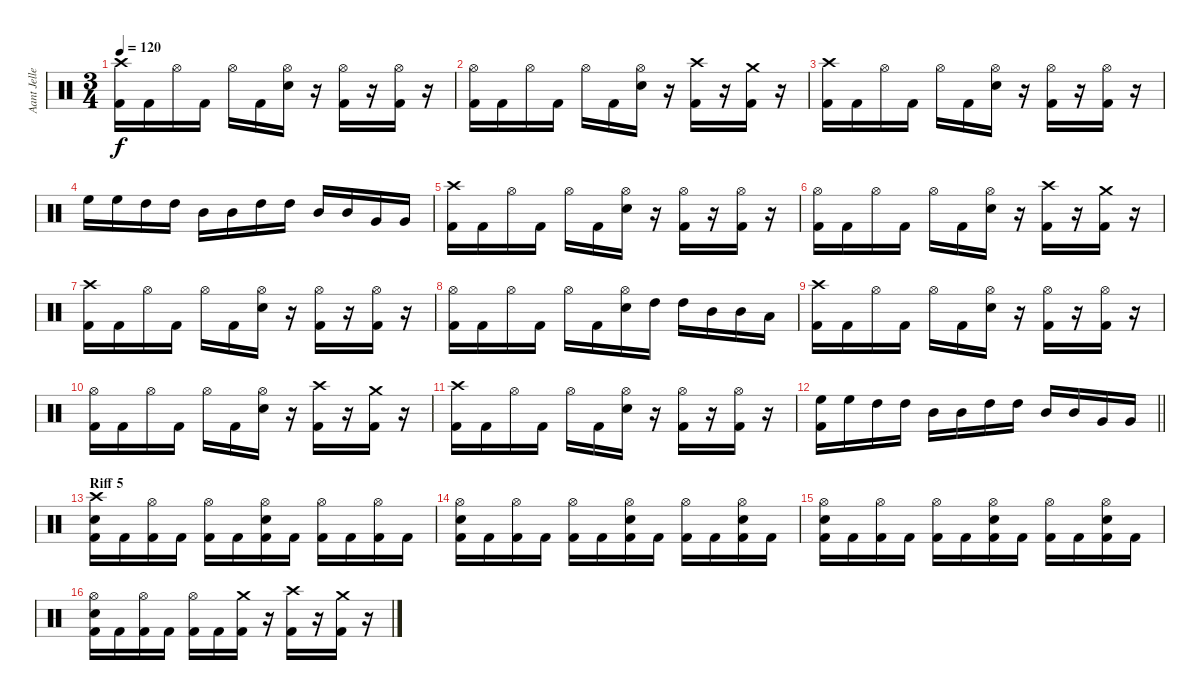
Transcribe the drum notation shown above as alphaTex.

\track ("Aant Jelle" "Aant Jelle") {instrument percussion}
\staff {score}
\articulation defaults
\ts (3 4)
\tempo 120
\clef neutral
\ks c
("Crash high (hit)" "Kick (hit) 2").16{dy f} "Kick (hit) 2".16 "Hi-Hat (open)".16 "Kick (hit) 2".16 "Hi-Hat (open)".16 "Kick (hit) 2".16 ("Hi-Hat (open)" "Snare (hit) 2").16 r.16 ("Hi-Hat (open)" "Kick (hit) 2").16 r.16 ("Hi-Hat (open)" "Kick (hit) 2").16 r.16 |
("Hi-Hat (open)" "Kick (hit) 2").16 "Kick (hit) 2".16 "Hi-Hat (open)".16 "Kick (hit) 2".16 "Hi-Hat (open)".16 "Kick (hit) 2".16 ("Hi-Hat (open)" "Snare (hit) 2").16 r.16 ("Crash high (hit)" "Kick (hit) 2").16 r.16 ("Crash medium (hit)" "Kick (hit) 2").16 r.16 |
("Crash high (hit)" "Kick (hit) 2").16 "Kick (hit) 2".16 "Hi-Hat (open)".16 "Kick (hit) 2".16 "Hi-Hat (open)".16 "Kick (hit) 2".16 ("Hi-Hat (open)" "Snare (hit) 2").16 r.16 ("Hi-Hat (open)" "Kick (hit) 2").16 r.16 ("Hi-Hat (open)" "Kick (hit) 2").16 r.16 |
"High Floor Tom (hit)".16 "High Floor Tom (hit)".16 "High Tom (hit)".16 "High Tom (hit)".16 "Mid Tom (hit)".16 "Mid Tom (hit)".16 "High Tom (hit)".16 "High Tom (hit)".16 "Mid Tom (hit)".16 "Mid Tom (hit)".16 "Very Low Tom (hit)".16 "Very Low Tom (hit)".16 |
("Crash high (hit)" "Kick (hit) 2").16 "Kick (hit) 2".16 "Hi-Hat (open)".16 "Kick (hit) 2".16 "Hi-Hat (open)".16 "Kick (hit) 2".16 ("Hi-Hat (open)" "Snare (hit) 2").16 r.16 ("Hi-Hat (open)" "Kick (hit) 2").16 r.16 ("Hi-Hat (open)" "Kick (hit) 2").16 r.16 |
("Hi-Hat (open)" "Kick (hit) 2").16 "Kick (hit) 2".16 "Hi-Hat (open)".16 "Kick (hit) 2".16 "Hi-Hat (open)".16 "Kick (hit) 2".16 ("Hi-Hat (open)" "Snare (hit) 2").16 r.16 ("Crash high (hit)" "Kick (hit) 2").16 r.16 ("Crash medium (hit)" "Kick (hit) 2").16 r.16 |
("Crash high (hit)" "Kick (hit) 2").16 "Kick (hit) 2".16 "Hi-Hat (open)".16 "Kick (hit) 2".16 "Hi-Hat (open)".16 "Kick (hit) 2".16 ("Hi-Hat (open)" "Snare (hit) 2").16 r.16 ("Hi-Hat (open)" "Kick (hit) 2").16 r.16 ("Hi-Hat (open)" "Kick (hit) 2").16 r.16 |
("Hi-Hat (open)" "Kick (hit) 2").16 "Kick (hit) 2".16 "Hi-Hat (open)".16 "Kick (hit) 2".16 "Hi-Hat (open)".16 "Kick (hit) 2".16 ("Hi-Hat (open)" "Snare (hit) 2").16 "High Tom (hit)".16 "High Tom (hit)".16 "Mid Tom (hit)".16 "Mid Tom (hit)".16 "Low Tom (hit)".16 |
("Crash high (hit)" "Kick (hit) 2").16 "Kick (hit) 2".16 "Hi-Hat (open)".16 "Kick (hit) 2".16 "Hi-Hat (open)".16 "Kick (hit) 2".16 ("Hi-Hat (open)" "Snare (hit) 2").16 r.16 ("Hi-Hat (open)" "Kick (hit) 2").16 r.16 ("Hi-Hat (open)" "Kick (hit) 2").16 r.16 |
("Hi-Hat (open)" "Kick (hit) 2").16 "Kick (hit) 2".16 "Hi-Hat (open)".16 "Kick (hit) 2".16 "Hi-Hat (open)".16 "Kick (hit) 2".16 ("Hi-Hat (open)" "Snare (hit) 2").16 r.16 ("Crash high (hit)" "Kick (hit) 2").16 r.16 ("Crash medium (hit)" "Kick (hit) 2").16 r.16 |
("Crash high (hit)" "Kick (hit) 2").16 "Kick (hit) 2".16 "Hi-Hat (open)".16 "Kick (hit) 2".16 "Hi-Hat (open)".16 "Kick (hit) 2".16 ("Hi-Hat (open)" "Snare (hit) 2").16 r.16 ("Hi-Hat (open)" "Kick (hit) 2").16 r.16 ("Hi-Hat (open)" "Kick (hit) 2").16 r.16 |
\barLineRight lightlight
("High Floor Tom (hit)" "Kick (hit) 2").16 "High Floor Tom (hit)".16 "High Tom (hit)".16 "High Tom (hit)".16 "Mid Tom (hit)".16 "Mid Tom (hit)".16 "High Tom (hit)".16 "High Tom (hit)".16 "Mid Tom (hit)".16 "Mid Tom (hit)".16 "Very Low Tom (hit)".16 "Very Low Tom (hit)".16 |
\section ("" "Riff 5")
("Crash high (hit)" "Snare (hit) 2" "Kick (hit) 2").16 "Kick (hit) 2".16 ("Hi-Hat (open)" "Kick (hit) 2").16 "Kick (hit) 2".16 ("Hi-Hat (open)" "Kick (hit) 2").16 "Kick (hit) 2".16 ("Hi-Hat (open)" "Snare (hit) 2" "Kick (hit) 2").16 "Kick (hit) 2".16 ("Hi-Hat (open)" "Kick (hit) 2").16 "Kick (hit) 2".16 ("Hi-Hat (open)" "Kick (hit) 2").16 "Kick (hit) 2".16 |
("Hi-Hat (open)" "Snare (hit) 2" "Kick (hit) 2").16 "Kick (hit) 2".16 ("Hi-Hat (open)" "Kick (hit) 2").16 "Kick (hit) 2".16 ("Hi-Hat (open)" "Kick (hit) 2").16 "Kick (hit) 2".16 ("Hi-Hat (open)" "Snare (hit) 2" "Kick (hit) 2").16 "Kick (hit) 2".16 ("Hi-Hat (open)" "Kick (hit) 2").16 "Kick (hit) 2".16 ("Hi-Hat (open)" "Snare (hit) 2" "Kick (hit) 2").16 "Kick (hit) 2".16 |
("Hi-Hat (open)" "Snare (hit) 2" "Kick (hit) 2").16 "Kick (hit) 2".16 ("Hi-Hat (open)" "Kick (hit) 2").16 "Kick (hit) 2".16 ("Hi-Hat (open)" "Kick (hit) 2").16 "Kick (hit) 2".16 ("Hi-Hat (open)" "Snare (hit) 2" "Kick (hit) 2").16 "Kick (hit) 2".16 ("Hi-Hat (open)" "Kick (hit) 2").16 "Kick (hit) 2".16 ("Hi-Hat (open)" "Snare (hit) 2" "Kick (hit) 2").16 "Kick (hit) 2".16 |
("Hi-Hat (open)" "Snare (hit) 2" "Kick (hit) 2").16 "Kick (hit) 2".16 ("Hi-Hat (open)" "Kick (hit) 2").16 "Kick (hit) 2".16 ("Hi-Hat (open)" "Kick (hit) 2").16 "Kick (hit) 2".16 ("Crash medium (hit)" "Kick (hit) 2").16 r.16 ("Crash high (hit)" "Kick (hit) 2").16 r.16 ("Crash medium (hit)" "Kick (hit) 2").16 r.16
